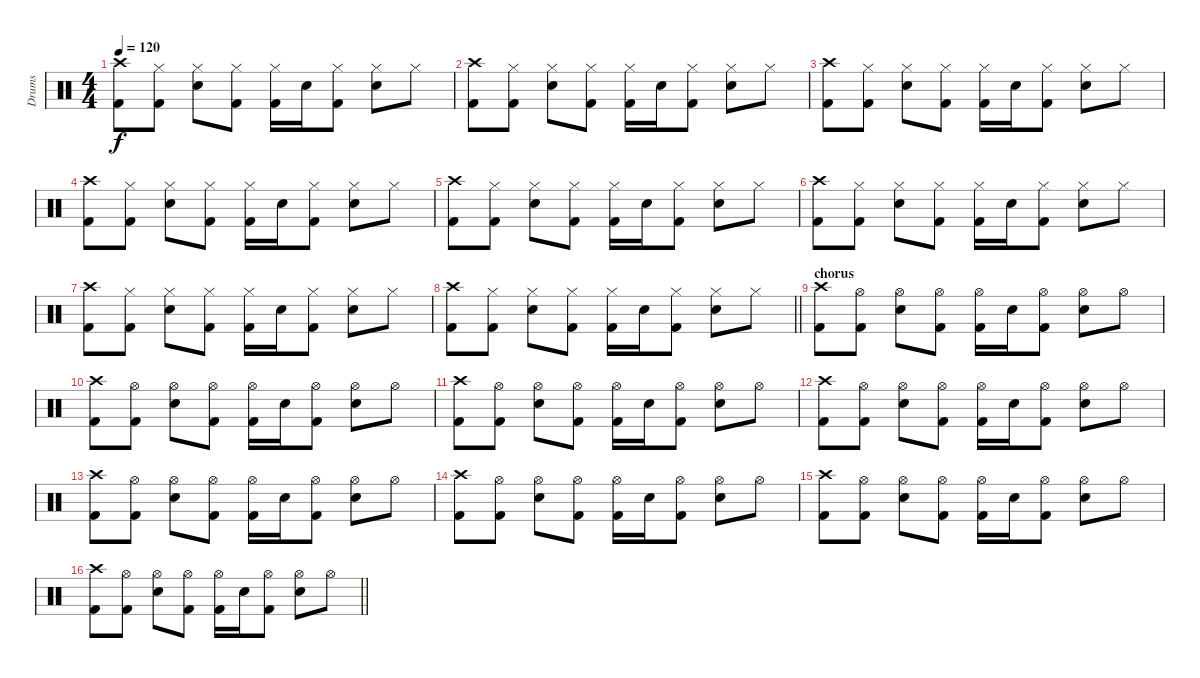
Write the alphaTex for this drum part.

\track ("Drums" "Drums") {instrument percussion}
\staff {score}
\articulation defaults
\ts (4 4)
\tempo 120
\clef neutral
\ks c
("Crash high (hit)" "Kick (hit) 2").8{dy f} ("Hi-Hat (closed)" "Kick (hit) 2").8 ("Hi-Hat (closed)" "Snare (hit) 2").8 ("Hi-Hat (closed)" "Kick (hit) 2").8 ("Hi-Hat (closed)" "Kick (hit) 2").16 "Snare (hit) 2".16 ("Hi-Hat (closed)" "Kick (hit) 2").8 ("Hi-Hat (closed)" "Snare (hit) 2").8 "Hi-Hat (closed)".8 |
("Crash high (hit)" "Kick (hit) 2").8 ("Hi-Hat (closed)" "Kick (hit) 2").8 ("Hi-Hat (closed)" "Snare (hit) 2").8 ("Hi-Hat (closed)" "Kick (hit) 2").8 ("Hi-Hat (closed)" "Kick (hit) 2").16 "Snare (hit) 2".16 ("Hi-Hat (closed)" "Kick (hit) 2").8 ("Hi-Hat (closed)" "Snare (hit) 2").8 "Hi-Hat (closed)".8 |
("Crash high (hit)" "Kick (hit) 2").8 ("Hi-Hat (closed)" "Kick (hit) 2").8 ("Hi-Hat (closed)" "Snare (hit) 2").8 ("Hi-Hat (closed)" "Kick (hit) 2").8 ("Hi-Hat (closed)" "Kick (hit) 2").16 "Snare (hit) 2".16 ("Hi-Hat (closed)" "Kick (hit) 2").8 ("Hi-Hat (closed)" "Snare (hit) 2").8 "Hi-Hat (closed)".8 |
("Crash high (hit)" "Kick (hit) 2").8 ("Hi-Hat (closed)" "Kick (hit) 2").8 ("Hi-Hat (closed)" "Snare (hit) 2").8 ("Hi-Hat (closed)" "Kick (hit) 2").8 ("Hi-Hat (closed)" "Kick (hit) 2").16 "Snare (hit) 2".16 ("Hi-Hat (closed)" "Kick (hit) 2").8 ("Hi-Hat (closed)" "Snare (hit) 2").8 "Hi-Hat (closed)".8 |
("Crash high (hit)" "Kick (hit) 2").8 ("Hi-Hat (closed)" "Kick (hit) 2").8 ("Hi-Hat (closed)" "Snare (hit) 2").8 ("Hi-Hat (closed)" "Kick (hit) 2").8 ("Hi-Hat (closed)" "Kick (hit) 2").16 "Snare (hit) 2".16 ("Hi-Hat (closed)" "Kick (hit) 2").8 ("Hi-Hat (closed)" "Snare (hit) 2").8 "Hi-Hat (closed)".8 |
("Crash high (hit)" "Kick (hit) 2").8 ("Hi-Hat (closed)" "Kick (hit) 2").8 ("Hi-Hat (closed)" "Snare (hit) 2").8 ("Hi-Hat (closed)" "Kick (hit) 2").8 ("Hi-Hat (closed)" "Kick (hit) 2").16 "Snare (hit) 2".16 ("Hi-Hat (closed)" "Kick (hit) 2").8 ("Hi-Hat (closed)" "Snare (hit) 2").8 "Hi-Hat (closed)".8 |
("Crash high (hit)" "Kick (hit) 2").8 ("Hi-Hat (closed)" "Kick (hit) 2").8 ("Hi-Hat (closed)" "Snare (hit) 2").8 ("Hi-Hat (closed)" "Kick (hit) 2").8 ("Hi-Hat (closed)" "Kick (hit) 2").16 "Snare (hit) 2".16 ("Hi-Hat (closed)" "Kick (hit) 2").8 ("Hi-Hat (closed)" "Snare (hit) 2").8 "Hi-Hat (closed)".8 |
\barLineRight lightlight
("Crash high (hit)" "Kick (hit) 2").8 ("Hi-Hat (closed)" "Kick (hit) 2").8 ("Hi-Hat (closed)" "Snare (hit) 2").8 ("Hi-Hat (closed)" "Kick (hit) 2").8 ("Hi-Hat (closed)" "Kick (hit) 2").16 "Snare (hit) 2".16 ("Hi-Hat (closed)" "Kick (hit) 2").8 ("Hi-Hat (closed)" "Snare (hit) 2").8 "Hi-Hat (closed)".8 |
\section ("" "chorus")
("Crash high (hit)" "Kick (hit) 2").8 ("Hi-Hat (open)" "Kick (hit) 2").8 ("Hi-Hat (open)" "Snare (hit) 2").8 ("Hi-Hat (open)" "Kick (hit) 2").8 ("Hi-Hat (open)" "Kick (hit) 2").16 "Snare (hit) 2".16 ("Hi-Hat (open)" "Kick (hit) 2").8 ("Hi-Hat (open)" "Snare (hit) 2").8 "Hi-Hat (open)".8 |
("Crash high (hit)" "Kick (hit) 2").8 ("Hi-Hat (open)" "Kick (hit) 2").8 ("Hi-Hat (open)" "Snare (hit) 2").8 ("Hi-Hat (open)" "Kick (hit) 2").8 ("Hi-Hat (open)" "Kick (hit) 2").16 "Snare (hit) 2".16 ("Hi-Hat (open)" "Kick (hit) 2").8 ("Hi-Hat (open)" "Snare (hit) 2").8 "Hi-Hat (open)".8 |
("Crash high (hit)" "Kick (hit) 2").8 ("Hi-Hat (open)" "Kick (hit) 2").8 ("Hi-Hat (open)" "Snare (hit) 2").8 ("Hi-Hat (open)" "Kick (hit) 2").8 ("Hi-Hat (open)" "Kick (hit) 2").16 "Snare (hit) 2".16 ("Hi-Hat (open)" "Kick (hit) 2").8 ("Hi-Hat (open)" "Snare (hit) 2").8 "Hi-Hat (open)".8 |
("Crash high (hit)" "Kick (hit) 2").8 ("Hi-Hat (open)" "Kick (hit) 2").8 ("Hi-Hat (open)" "Snare (hit) 2").8 ("Hi-Hat (open)" "Kick (hit) 2").8 ("Hi-Hat (open)" "Kick (hit) 2").16 "Snare (hit) 2".16 ("Hi-Hat (open)" "Kick (hit) 2").8 ("Hi-Hat (open)" "Snare (hit) 2").8 "Hi-Hat (open)".8 |
("Crash high (hit)" "Kick (hit) 2").8 ("Hi-Hat (open)" "Kick (hit) 2").8 ("Hi-Hat (open)" "Snare (hit) 2").8 ("Hi-Hat (open)" "Kick (hit) 2").8 ("Hi-Hat (open)" "Kick (hit) 2").16 "Snare (hit) 2".16 ("Hi-Hat (open)" "Kick (hit) 2").8 ("Hi-Hat (open)" "Snare (hit) 2").8 "Hi-Hat (open)".8 |
("Crash high (hit)" "Kick (hit) 2").8 ("Hi-Hat (open)" "Kick (hit) 2").8 ("Hi-Hat (open)" "Snare (hit) 2").8 ("Hi-Hat (open)" "Kick (hit) 2").8 ("Hi-Hat (open)" "Kick (hit) 2").16 "Snare (hit) 2".16 ("Hi-Hat (open)" "Kick (hit) 2").8 ("Hi-Hat (open)" "Snare (hit) 2").8 "Hi-Hat (open)".8 |
("Crash high (hit)" "Kick (hit) 2").8 ("Hi-Hat (open)" "Kick (hit) 2").8 ("Hi-Hat (open)" "Snare (hit) 2").8 ("Hi-Hat (open)" "Kick (hit) 2").8 ("Hi-Hat (open)" "Kick (hit) 2").16 "Snare (hit) 2".16 ("Hi-Hat (open)" "Kick (hit) 2").8 ("Hi-Hat (open)" "Snare (hit) 2").8 "Hi-Hat (open)".8 |
\barLineRight lightlight
("Crash high (hit)" "Kick (hit) 2").8 ("Hi-Hat (open)" "Kick (hit) 2").8 ("Hi-Hat (open)" "Snare (hit) 2").8 ("Hi-Hat (open)" "Kick (hit) 2").8 ("Hi-Hat (open)" "Kick (hit) 2").16 "Snare (hit) 2".16 ("Hi-Hat (open)" "Kick (hit) 2").8 ("Hi-Hat (open)" "Snare (hit) 2").8 "Hi-Hat (open)".8
